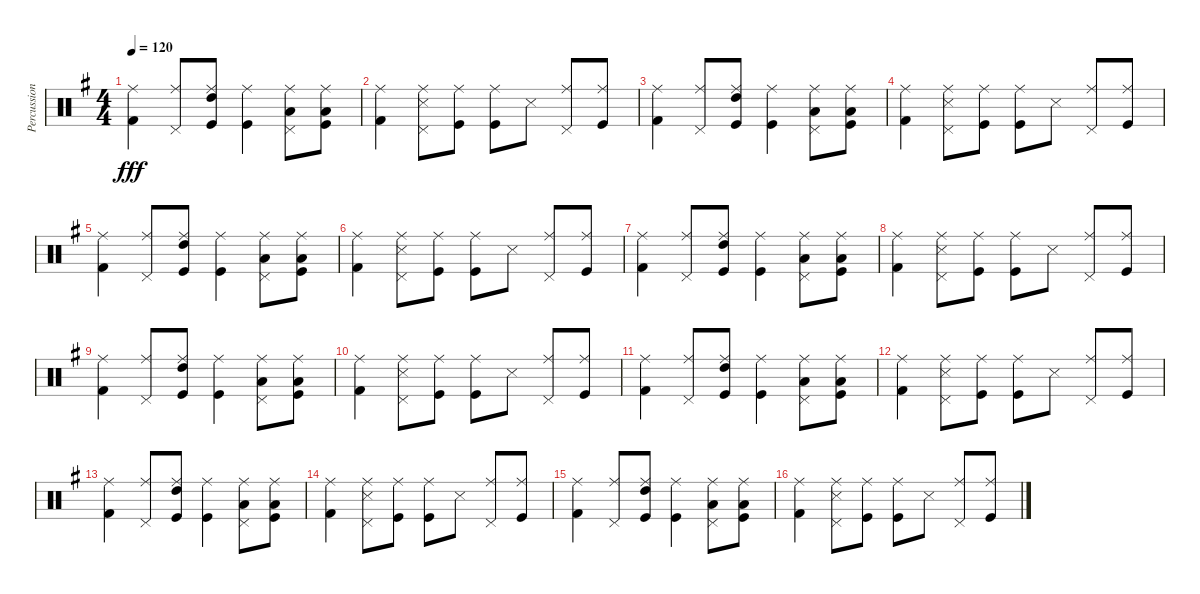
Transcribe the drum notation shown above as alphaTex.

\track ("Percussions" "Percussion") {instrument percussion}
\staff {score}
\articulation defaults
\ts (4 4)
\tempo 120
\clef neutral
\ks g
("Ride (middle)" "Kick (hit) 2").4{dy fff} ("Ride (middle)" "Pedal Hi-Hat (hit)").8 ("Ride (middle)" "Kick (hit)" "High Tom (hit)").8 ("Ride (middle)" "Kick (hit)").4 ("Ride (middle)" "Low Tom (hit)" "Pedal Hi-Hat (hit)").8 ("Ride (middle)" "Kick (hit)" "Low Tom (hit)").8 |
("Ride (middle)" "Kick (hit) 2").4 ("Ride (middle)" "Pedal Hi-Hat (hit)" "Snare (side stick) 3").8 ("Ride (middle)" "Kick (hit)").8 ("Ride (middle)" "Kick (hit)").8 "Snare (side stick) 3".8 ("Ride (middle)" "Pedal Hi-Hat (hit)").8 ("Ride (middle)" "Kick (hit)").8 |
("Ride (middle)" "Kick (hit) 2").4 ("Ride (middle)" "Pedal Hi-Hat (hit)").8 ("Ride (middle)" "Kick (hit)" "High Tom (hit)").8 ("Ride (middle)" "Kick (hit)").4 ("Ride (middle)" "Low Tom (hit)" "Pedal Hi-Hat (hit)").8 ("Ride (middle)" "Kick (hit)" "Low Tom (hit)").8 |
("Ride (middle)" "Kick (hit) 2").4 ("Ride (middle)" "Pedal Hi-Hat (hit)" "Snare (side stick) 3").8 ("Ride (middle)" "Kick (hit)").8 ("Ride (middle)" "Kick (hit)").8 "Snare (side stick) 3".8 ("Ride (middle)" "Pedal Hi-Hat (hit)").8 ("Ride (middle)" "Kick (hit)").8 |
("Ride (middle)" "Kick (hit) 2").4 ("Ride (middle)" "Pedal Hi-Hat (hit)").8 ("Ride (middle)" "Kick (hit)" "High Tom (hit)").8 ("Ride (middle)" "Kick (hit)").4 ("Ride (middle)" "Low Tom (hit)" "Pedal Hi-Hat (hit)").8 ("Ride (middle)" "Kick (hit)" "Low Tom (hit)").8 |
("Ride (middle)" "Kick (hit) 2").4 ("Ride (middle)" "Pedal Hi-Hat (hit)" "Snare (side stick) 3").8 ("Ride (middle)" "Kick (hit)").8 ("Ride (middle)" "Kick (hit)").8 "Snare (side stick) 3".8 ("Ride (middle)" "Pedal Hi-Hat (hit)").8 ("Ride (middle)" "Kick (hit)").8 |
("Ride (middle)" "Kick (hit) 2").4 ("Ride (middle)" "Pedal Hi-Hat (hit)").8 ("Ride (middle)" "Kick (hit)" "High Tom (hit)").8 ("Ride (middle)" "Kick (hit)").4 ("Ride (middle)" "Low Tom (hit)" "Pedal Hi-Hat (hit)").8 ("Ride (middle)" "Kick (hit)" "Low Tom (hit)").8 |
("Ride (middle)" "Kick (hit) 2").4 ("Ride (middle)" "Pedal Hi-Hat (hit)" "Snare (side stick) 3").8 ("Ride (middle)" "Kick (hit)").8 ("Ride (middle)" "Kick (hit)").8 "Snare (side stick) 3".8 ("Ride (middle)" "Pedal Hi-Hat (hit)").8 ("Ride (middle)" "Kick (hit)").8 |
("Ride (middle)" "Kick (hit) 2").4 ("Ride (middle)" "Pedal Hi-Hat (hit)").8 ("Ride (middle)" "Kick (hit)" "High Tom (hit)").8 ("Ride (middle)" "Kick (hit)").4 ("Ride (middle)" "Low Tom (hit)" "Pedal Hi-Hat (hit)").8 ("Ride (middle)" "Kick (hit)" "Low Tom (hit)").8 |
("Ride (middle)" "Kick (hit) 2").4 ("Ride (middle)" "Pedal Hi-Hat (hit)" "Snare (side stick) 3").8 ("Ride (middle)" "Kick (hit)").8 ("Ride (middle)" "Kick (hit)").8 "Snare (side stick) 3".8 ("Ride (middle)" "Pedal Hi-Hat (hit)").8 ("Ride (middle)" "Kick (hit)").8 |
("Ride (middle)" "Kick (hit) 2").4 ("Ride (middle)" "Pedal Hi-Hat (hit)").8 ("Ride (middle)" "Kick (hit)" "High Tom (hit)").8 ("Ride (middle)" "Kick (hit)").4 ("Ride (middle)" "Low Tom (hit)" "Pedal Hi-Hat (hit)").8 ("Ride (middle)" "Kick (hit)" "Low Tom (hit)").8 |
("Ride (middle)" "Kick (hit) 2").4 ("Ride (middle)" "Pedal Hi-Hat (hit)" "Snare (side stick) 3").8 ("Ride (middle)" "Kick (hit)").8 ("Ride (middle)" "Kick (hit)").8 "Snare (side stick) 3".8 ("Ride (middle)" "Pedal Hi-Hat (hit)").8 ("Ride (middle)" "Kick (hit)").8 |
("Ride (middle)" "Kick (hit) 2").4 ("Ride (middle)" "Pedal Hi-Hat (hit)").8 ("Ride (middle)" "Kick (hit)" "High Tom (hit)").8 ("Ride (middle)" "Kick (hit)").4 ("Ride (middle)" "Low Tom (hit)" "Pedal Hi-Hat (hit)").8 ("Ride (middle)" "Kick (hit)" "Low Tom (hit)").8 |
("Ride (middle)" "Kick (hit) 2").4 ("Ride (middle)" "Pedal Hi-Hat (hit)" "Snare (side stick) 3").8 ("Ride (middle)" "Kick (hit)").8 ("Ride (middle)" "Kick (hit)").8 "Snare (side stick) 3".8 ("Ride (middle)" "Pedal Hi-Hat (hit)").8 ("Ride (middle)" "Kick (hit)").8 |
("Ride (middle)" "Kick (hit) 2").4 ("Ride (middle)" "Pedal Hi-Hat (hit)").8 ("Ride (middle)" "Kick (hit)" "High Tom (hit)").8 ("Ride (middle)" "Kick (hit)").4 ("Ride (middle)" "Low Tom (hit)" "Pedal Hi-Hat (hit)").8 ("Ride (middle)" "Kick (hit)" "Low Tom (hit)").8 |
("Ride (middle)" "Kick (hit) 2").4 ("Ride (middle)" "Pedal Hi-Hat (hit)" "Snare (side stick) 3").8 ("Ride (middle)" "Kick (hit)").8 ("Ride (middle)" "Kick (hit)").8 "Snare (side stick) 3".8 ("Ride (middle)" "Pedal Hi-Hat (hit)").8 ("Ride (middle)" "Kick (hit)").8
